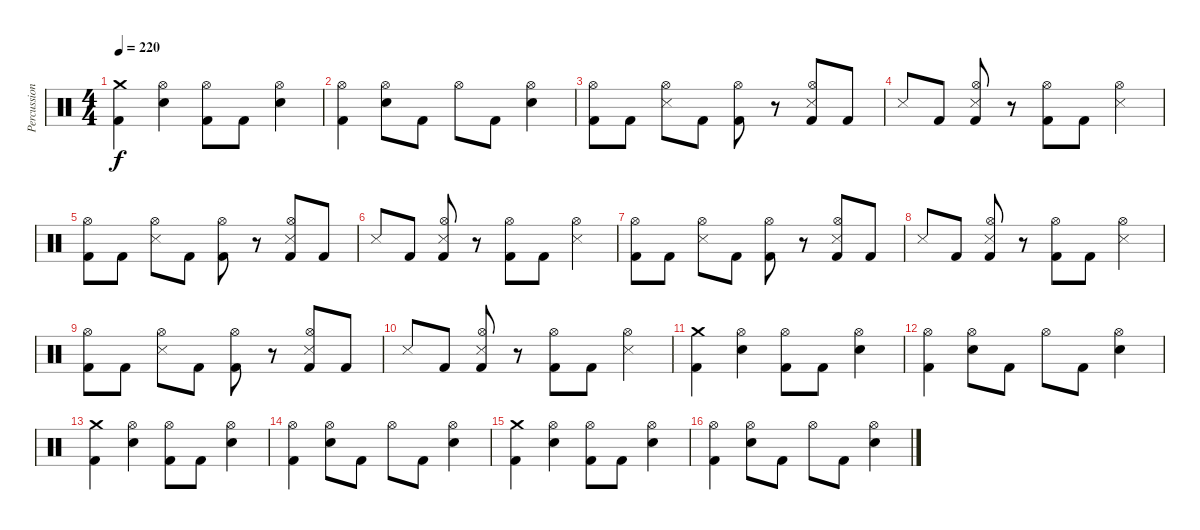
\track ("Percussions" "Percussion") {instrument percussion}
\staff {score}
\articulation defaults
\ts (4 4)
\tempo 220
\clef neutral
\ks c
("Crash medium (hit)" "Kick (hit) 2").4{dy f} ("Hi-Hat (open)" "Electric Snare (hit)").4 ("Hi-Hat (open)" "Kick (hit) 2").8 "Kick (hit) 2".8 ("Hi-Hat (open)" "Electric Snare (hit)").4 |
("Hi-Hat (open)" "Kick (hit) 2").4 ("Hi-Hat (open)" "Electric Snare (hit)").8 "Kick (hit) 2".8 "Hi-Hat (open)".8 "Kick (hit) 2".8 ("Hi-Hat (open)" "Electric Snare (hit)").4 |
("Hi-Hat (open)" "Kick (hit) 2").8 "Kick (hit) 2".8 ("Hi-Hat (open)" "Snare (side stick) 3").8 "Kick (hit) 2".8 ("Hi-Hat (open)" "Kick (hit) 2").8 r.8 ("Hi-Hat (open)" "Snare (side stick) 3" "Kick (hit) 2").8 "Kick (hit) 2".8 |
"Snare (side stick) 3".8 "Kick (hit) 2".8 ("Hi-Hat (open)" "Snare (side stick) 3" "Kick (hit) 2").8 r.8 ("Hi-Hat (open)" "Kick (hit) 2").8 "Kick (hit) 2".8 ("Hi-Hat (open)" "Snare (side stick) 3").4 |
("Hi-Hat (open)" "Kick (hit) 2").8 "Kick (hit) 2".8 ("Hi-Hat (open)" "Snare (side stick) 3").8 "Kick (hit) 2".8 ("Hi-Hat (open)" "Kick (hit) 2").8 r.8 ("Hi-Hat (open)" "Snare (side stick) 3" "Kick (hit) 2").8 "Kick (hit) 2".8 |
"Snare (side stick) 3".8 "Kick (hit) 2".8 ("Hi-Hat (open)" "Snare (side stick) 3" "Kick (hit) 2").8 r.8 ("Hi-Hat (open)" "Kick (hit) 2").8 "Kick (hit) 2".8 ("Hi-Hat (open)" "Snare (side stick) 3").4 |
("Hi-Hat (open)" "Kick (hit) 2").8 "Kick (hit) 2".8 ("Hi-Hat (open)" "Snare (side stick) 3").8 "Kick (hit) 2".8 ("Hi-Hat (open)" "Kick (hit) 2").8 r.8 ("Hi-Hat (open)" "Snare (side stick) 3" "Kick (hit) 2").8 "Kick (hit) 2".8 |
"Snare (side stick) 3".8 "Kick (hit) 2".8 ("Hi-Hat (open)" "Snare (side stick) 3" "Kick (hit) 2").8 r.8 ("Hi-Hat (open)" "Kick (hit) 2").8 "Kick (hit) 2".8 ("Hi-Hat (open)" "Snare (side stick) 3").4 |
("Hi-Hat (open)" "Kick (hit) 2").8 "Kick (hit) 2".8 ("Hi-Hat (open)" "Snare (side stick) 3").8 "Kick (hit) 2".8 ("Hi-Hat (open)" "Kick (hit) 2").8 r.8 ("Hi-Hat (open)" "Snare (side stick) 3" "Kick (hit) 2").8 "Kick (hit) 2".8 |
"Snare (side stick) 3".8 "Kick (hit) 2".8 ("Hi-Hat (open)" "Snare (side stick) 3" "Kick (hit) 2").8 r.8 ("Hi-Hat (open)" "Kick (hit) 2").8 "Kick (hit) 2".8 ("Hi-Hat (open)" "Snare (side stick) 3").4 |
("Crash medium (hit)" "Kick (hit) 2").4 ("Hi-Hat (open)" "Electric Snare (hit)").4 ("Hi-Hat (open)" "Kick (hit) 2").8 "Kick (hit) 2".8 ("Hi-Hat (open)" "Electric Snare (hit)").4 |
("Hi-Hat (open)" "Kick (hit) 2").4 ("Hi-Hat (open)" "Electric Snare (hit)").8 "Kick (hit) 2".8 "Hi-Hat (open)".8 "Kick (hit) 2".8 ("Hi-Hat (open)" "Electric Snare (hit)").4 |
("Crash medium (hit)" "Kick (hit) 2").4 ("Hi-Hat (open)" "Electric Snare (hit)").4 ("Hi-Hat (open)" "Kick (hit) 2").8 "Kick (hit) 2".8 ("Hi-Hat (open)" "Electric Snare (hit)").4 |
("Hi-Hat (open)" "Kick (hit) 2").4 ("Hi-Hat (open)" "Electric Snare (hit)").8 "Kick (hit) 2".8 "Hi-Hat (open)".8 "Kick (hit) 2".8 ("Hi-Hat (open)" "Electric Snare (hit)").4 |
("Crash medium (hit)" "Kick (hit) 2").4 ("Hi-Hat (open)" "Electric Snare (hit)").4 ("Hi-Hat (open)" "Kick (hit) 2").8 "Kick (hit) 2".8 ("Hi-Hat (open)" "Electric Snare (hit)").4 |
("Hi-Hat (open)" "Kick (hit) 2").4 ("Hi-Hat (open)" "Electric Snare (hit)").8 "Kick (hit) 2".8 "Hi-Hat (open)".8 "Kick (hit) 2".8 ("Hi-Hat (open)" "Electric Snare (hit)").4
